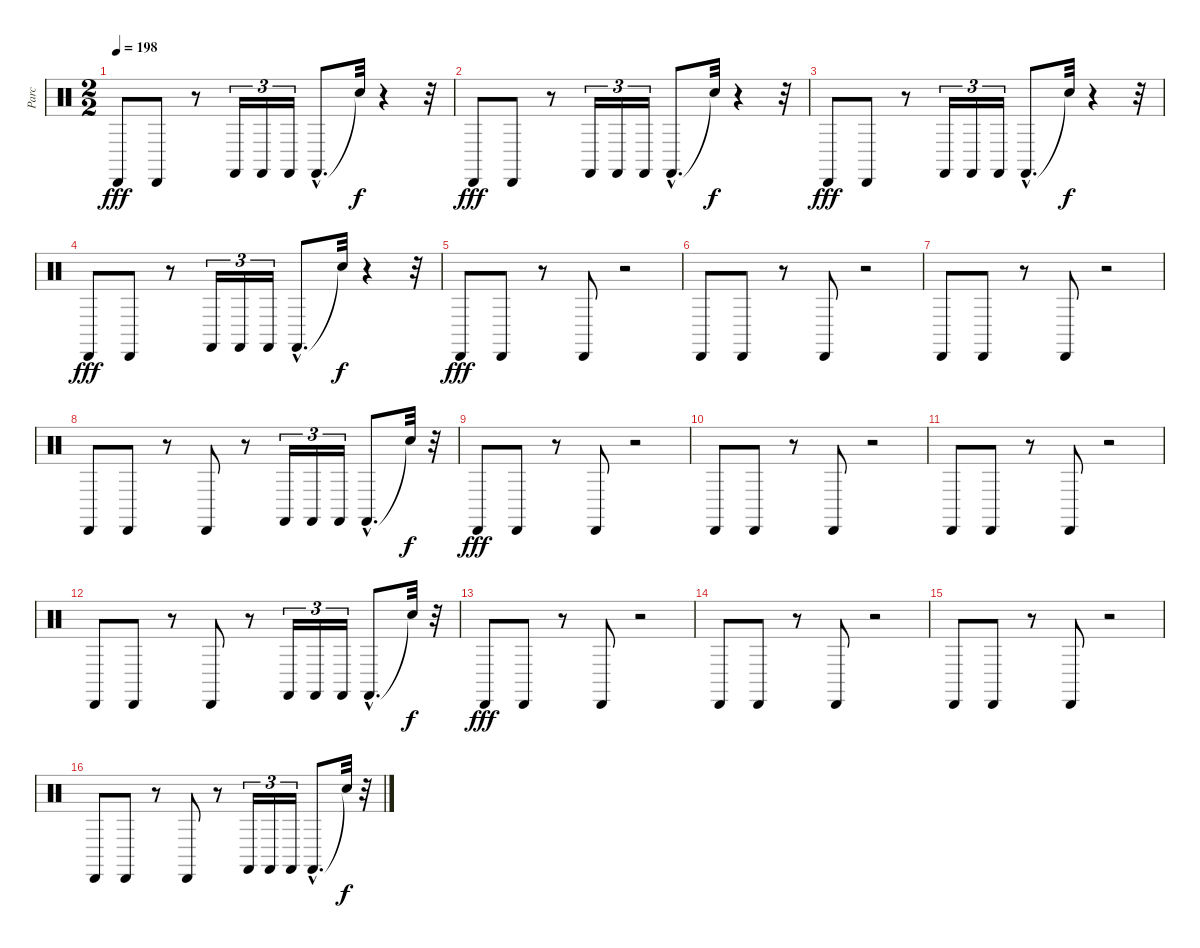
\track ("Parc" "Parc") {instrument percussion}
\staff {score}
\articulation defaults
\ts (2 2)
\tempo 198
\clef neutral
\ks c "Cabasa (hit)".8{dy fff} "Cabasa (hit)".8
r.8 "Castanets (hit)".16{tu (3 2)} "Castanets (hit)".16{tu (3 2)} "Castanets (hit)".16{tu (3 2)} "Castanets (hit)"{hac}.8{d} "Snare (hit)"{t}.32{dy f} r.4 r.32 |
"Cabasa (hit)".8{dy fff} "Cabasa (hit)".8 r.8 "Castanets (hit)".16{tu (3 2)} "Castanets (hit)".16{tu (3 2)} "Castanets (hit)".16{tu (3 2)} "Castanets (hit)"{hac}.8{d} "Snare (hit)"{t}.32{dy f} r.4 r.32 |
"Cabasa (hit)".8{dy fff} "Cabasa (hit)".8 r.8 "Castanets (hit)".16{tu (3 2)} "Castanets (hit)".16{tu (3 2)} "Castanets (hit)".16{tu (3 2)} "Castanets (hit)"{hac}.8{d} "Snare (hit)"{t}.32{dy f} r.4 r.32 |
"Cabasa (hit)".8{dy fff} "Cabasa (hit)".8 r.8 "Castanets (hit)".16{tu (3 2)} "Castanets (hit)".16{tu (3 2)} "Castanets (hit)".16{tu (3 2)} "Castanets (hit)"{hac}.8{d} "Snare (hit)"{t}.32{dy f} r.4 r.32 |
"Cabasa (hit)".8{dy fff} "Cabasa (hit)".8 r.8 "Cabasa (hit)".8 r.2 |
"Cabasa (hit)".8 "Cabasa (hit)".8 r.8 "Cabasa (hit)".8 r.2 |
"Cabasa (hit)".8 "Cabasa (hit)".8 r.8 "Cabasa (hit)".8 r.2 |
"Cabasa (hit)".8 "Cabasa (hit)".8 r.8 "Cabasa (hit)".8 r.8 "Castanets (hit)".16{tu (3 2)} "Castanets (hit)".16{tu (3 2)} "Castanets (hit)".16{tu (3 2)} "Castanets (hit)"{hac}.8{d} "Snare (hit)"{t}.32{dy f} r.32 |
"Cabasa (hit)".8{dy fff} "Cabasa (hit)".8 r.8 "Cabasa (hit)".8 r.2 |
"Cabasa (hit)".8 "Cabasa (hit)".8 r.8 "Cabasa (hit)".8 r.2 |
"Cabasa (hit)".8 "Cabasa (hit)".8 r.8 "Cabasa (hit)".8 r.2 |
"Cabasa (hit)".8 "Cabasa (hit)".8 r.8 "Cabasa (hit)".8 r.8 "Castanets (hit)".16{tu (3 2)} "Castanets (hit)".16{tu (3 2)} "Castanets (hit)".16{tu (3 2)} "Castanets (hit)"{hac}.8{d} "Snare (hit)"{t}.32{dy f} r.32 |
"Cabasa (hit)".8{dy fff} "Cabasa (hit)".8 r.8 "Cabasa (hit)".8 r.2 |
"Cabasa (hit)".8 "Cabasa (hit)".8 r.8 "Cabasa (hit)".8 r.2 |
"Cabasa (hit)".8 "Cabasa (hit)".8 r.8 "Cabasa (hit)".8 r.2 |
"Cabasa (hit)".8 "Cabasa (hit)".8 r.8 "Cabasa (hit)".8 r.8 "Castanets (hit)".16{tu (3 2)} "Castanets (hit)".16{tu (3 2)} "Castanets (hit)".16{tu (3 2)} "Castanets (hit)"{hac}.8{d} "Snare (hit)"{t}.32{dy f} r.32
